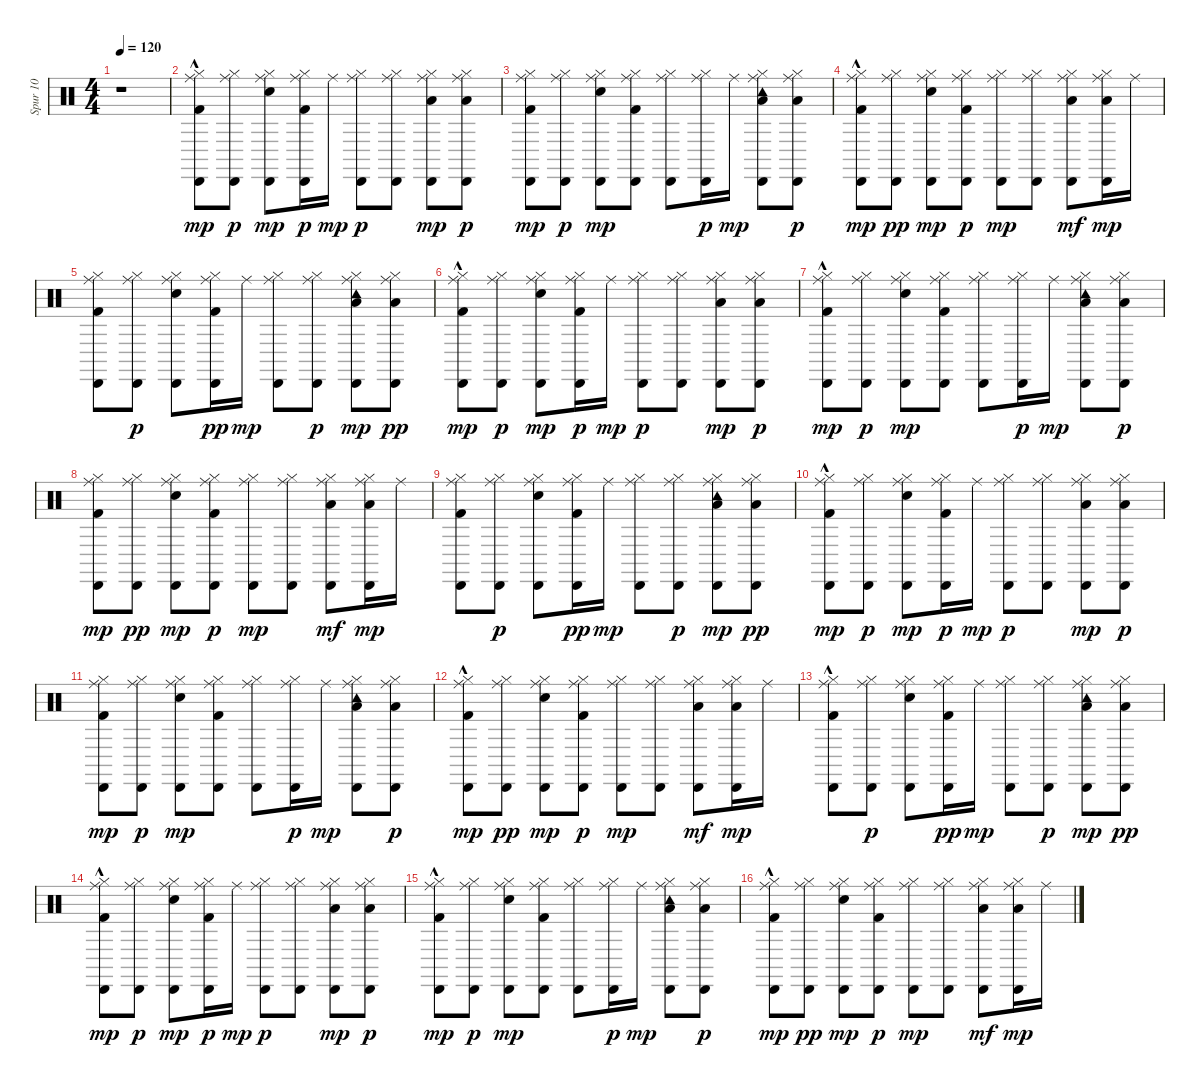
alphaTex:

\track ("Spur 10" "Spur 10") {instrument percussion}
\staff {score}
\articulation defaults
\ts (4 4)
\tempo 120
\clef neutral
\ks c
r.1{dy mp} |
("Kick (hit) 2"{hac} "Hi-Hat (closed)" "Cabasa (hit)" "Ride (middle)").8 ("Hi-Hat (closed)" "Cabasa (hit)" "Ride (middle)").8{dy p} ("Snare (hit) 2" "Hi-Hat (closed)" "Cabasa (hit)" "Ride (middle)").8{dy mp} ("Kick (hit) 2" "Hi-Hat (closed)" "Cabasa (hit)" "Ride (middle)").16{dy p} "Ride (middle)".16{dy mp} ("Hi-Hat (closed)" "Cabasa (hit)" "Ride (middle)").8{dy p} ("Hi-Hat (closed)" "Cabasa (hit)" "Ride (middle)").8 ("Low Floor Tom (hit)" "Hi-Hat (closed)" "Cabasa (hit)" "Ride (middle)").8{dy mp} ("Low Floor Tom (hit)" "Hi-Hat (closed)" "Cabasa (hit)" "Ride (middle)").8{dy p} |
("Kick (hit) 2" "Hi-Hat (closed)" "Cabasa (hit)" "Ride (middle)").8{dy mp} ("Hi-Hat (closed)" "Cabasa (hit)" "Ride (middle)").8{dy p} ("Snare (hit) 2" "Hi-Hat (closed)" "Cabasa (hit)" "Ride (middle)").8{dy mp} ("Kick (hit) 2" "Hi-Hat (closed)" "Cabasa (hit)" "Ride (middle)").8 ("Hi-Hat (closed)" "Cabasa (hit)" "Ride (middle)").8 ("Hi-Hat (closed)" "Cabasa (hit)" "Ride (middle)").16{dy p} "Ride (middle)".16{dy mp} ("Low Tom (hit)" "Hi-Hat (closed)" "Cabasa (hit)" "Tambourine (hit)" "Ride (middle)").8 ("Low Tom (hit)" "Hi-Hat (closed)" "Cabasa (hit)" "Ride (middle)").8{dy p} |
("Kick (hit) 2"{hac} "Hi-Hat (closed)" "Cabasa (hit)" "Ride (middle)").8{dy mp} ("Hi-Hat (closed)" "Cabasa (hit)" "Ride (middle)").8{dy pp} ("Snare (hit) 2" "Hi-Hat (closed)" "Cabasa (hit)" "Ride (middle)").8{dy mp} ("Kick (hit) 2" "Hi-Hat (closed)" "Cabasa (hit)" "Ride (middle)").8{dy p} ("Hi-Hat (closed)" "Cabasa (hit)" "Ride (middle)").8{dy mp} ("Hi-Hat (closed)" "Cabasa (hit)" "Ride (middle)").8 ("Low Floor Tom (hit)" "Hi-Hat (closed)" "Cabasa (hit)" "Ride (middle)").8{dy mf} ("Low Floor Tom (hit)" "Hi-Hat (closed)" "Cabasa (hit)" "Ride (middle)").16{dy mp} "Ride (middle)".16 |
("Kick (hit) 2" "Hi-Hat (closed)" "Cabasa (hit)" "Ride (middle)").8 ("Hi-Hat (closed)" "Cabasa (hit)" "Ride (middle)").8{dy p} ("Snare (hit) 2" "Hi-Hat (closed)" "Cabasa (hit)" "Ride (middle)").8 ("Kick (hit) 2" "Hi-Hat (closed)" "Cabasa (hit)" "Ride (middle)").16{dy pp} "Ride (middle)".16{dy mp} ("Hi-Hat (closed)" "Cabasa (hit)" "Ride (middle)").8 ("Hi-Hat (closed)" "Cabasa (hit)" "Ride (middle)").8{dy p} ("Low Tom (hit)" "Hi-Hat (closed)" "Cabasa (hit)" "Tambourine (hit)" "Ride (middle)").8{dy mp} ("Low Tom (hit)" "Hi-Hat (closed)" "Cabasa (hit)" "Ride (middle)").8{dy pp} |
("Kick (hit) 2"{hac} "Hi-Hat (closed)" "Cabasa (hit)" "Ride (middle)").8{dy mp} ("Hi-Hat (closed)" "Cabasa (hit)" "Ride (middle)").8{dy p} ("Snare (hit) 2" "Hi-Hat (closed)" "Cabasa (hit)" "Ride (middle)").8{dy mp} ("Kick (hit) 2" "Hi-Hat (closed)" "Cabasa (hit)" "Ride (middle)").16{dy p} "Ride (middle)".16{dy mp} ("Hi-Hat (closed)" "Cabasa (hit)" "Ride (middle)").8{dy p} ("Hi-Hat (closed)" "Cabasa (hit)" "Ride (middle)").8 ("Low Floor Tom (hit)" "Hi-Hat (closed)" "Cabasa (hit)" "Ride (middle)").8{dy mp} ("Low Floor Tom (hit)" "Hi-Hat (closed)" "Cabasa (hit)" "Ride (middle)").8{dy p} |
("Kick (hit) 2"{hac} "Hi-Hat (closed)" "Cabasa (hit)" "Ride (middle)").8{dy mp} ("Hi-Hat (closed)" "Cabasa (hit)" "Ride (middle)").8{dy p} ("Snare (hit) 2" "Hi-Hat (closed)" "Cabasa (hit)" "Ride (middle)").8{dy mp} ("Kick (hit) 2" "Hi-Hat (closed)" "Cabasa (hit)" "Ride (middle)").8 ("Hi-Hat (closed)" "Cabasa (hit)" "Ride (middle)").8 ("Hi-Hat (closed)" "Cabasa (hit)" "Ride (middle)").16{dy p} "Ride (middle)".16{dy mp} ("Low Tom (hit)" "Hi-Hat (closed)" "Cabasa (hit)" "Tambourine (hit)" "Ride (middle)").8 ("Low Tom (hit)" "Hi-Hat (closed)" "Cabasa (hit)" "Ride (middle)").8{dy p} |
("Kick (hit) 2" "Hi-Hat (closed)" "Cabasa (hit)" "Ride (middle)").8{dy mp} ("Hi-Hat (closed)" "Cabasa (hit)" "Ride (middle)").8{dy pp} ("Snare (hit) 2" "Hi-Hat (closed)" "Cabasa (hit)" "Ride (middle)").8{dy mp} ("Kick (hit) 2" "Hi-Hat (closed)" "Cabasa (hit)" "Ride (middle)").8{dy p} ("Hi-Hat (closed)" "Cabasa (hit)" "Ride (middle)").8{dy mp} ("Hi-Hat (closed)" "Cabasa (hit)" "Ride (middle)").8 ("Low Floor Tom (hit)" "Hi-Hat (closed)" "Cabasa (hit)" "Ride (middle)").8{dy mf} ("Low Floor Tom (hit)" "Hi-Hat (closed)" "Cabasa (hit)" "Ride (middle)").16{dy mp} "Ride (middle)".16 |
("Kick (hit) 2" "Hi-Hat (closed)" "Cabasa (hit)" "Ride (middle)").8 ("Hi-Hat (closed)" "Cabasa (hit)" "Ride (middle)").8{dy p} ("Snare (hit) 2" "Hi-Hat (closed)" "Cabasa (hit)" "Ride (middle)").8 ("Kick (hit) 2" "Hi-Hat (closed)" "Cabasa (hit)" "Ride (middle)").16{dy pp} "Ride (middle)".16{dy mp} ("Hi-Hat (closed)" "Cabasa (hit)" "Ride (middle)").8 ("Hi-Hat (closed)" "Cabasa (hit)" "Ride (middle)").8{dy p} ("Low Tom (hit)" "Hi-Hat (closed)" "Cabasa (hit)" "Tambourine (hit)" "Ride (middle)").8{dy mp} ("Low Tom (hit)" "Hi-Hat (closed)" "Cabasa (hit)" "Ride (middle)").8{dy pp} |
("Kick (hit) 2"{hac} "Hi-Hat (closed)" "Cabasa (hit)" "Ride (middle)").8{dy mp} ("Hi-Hat (closed)" "Cabasa (hit)" "Ride (middle)").8{dy p} ("Snare (hit) 2" "Hi-Hat (closed)" "Cabasa (hit)" "Ride (middle)").8{dy mp} ("Kick (hit) 2" "Hi-Hat (closed)" "Cabasa (hit)" "Ride (middle)").16{dy p} "Ride (middle)".16{dy mp} ("Hi-Hat (closed)" "Cabasa (hit)" "Ride (middle)").8{dy p} ("Hi-Hat (closed)" "Cabasa (hit)" "Ride (middle)").8 ("Low Floor Tom (hit)" "Hi-Hat (closed)" "Cabasa (hit)" "Ride (middle)").8{dy mp} ("Low Floor Tom (hit)" "Hi-Hat (closed)" "Cabasa (hit)" "Ride (middle)").8{dy p} |
("Kick (hit) 2" "Hi-Hat (closed)" "Cabasa (hit)" "Ride (middle)").8{dy mp} ("Hi-Hat (closed)" "Cabasa (hit)" "Ride (middle)").8{dy p} ("Snare (hit) 2" "Hi-Hat (closed)" "Cabasa (hit)" "Ride (middle)").8{dy mp} ("Kick (hit) 2" "Hi-Hat (closed)" "Cabasa (hit)" "Ride (middle)").8 ("Hi-Hat (closed)" "Cabasa (hit)" "Ride (middle)").8 ("Hi-Hat (closed)" "Cabasa (hit)" "Ride (middle)").16{dy p} "Ride (middle)".16{dy mp} ("Low Tom (hit)" "Hi-Hat (closed)" "Cabasa (hit)" "Tambourine (hit)" "Ride (middle)").8 ("Low Tom (hit)" "Hi-Hat (closed)" "Cabasa (hit)" "Ride (middle)").8{dy p} |
("Kick (hit) 2"{hac} "Hi-Hat (closed)" "Cabasa (hit)" "Ride (middle)").8{dy mp} ("Hi-Hat (closed)" "Cabasa (hit)" "Ride (middle)").8{dy pp} ("Snare (hit) 2" "Hi-Hat (closed)" "Cabasa (hit)" "Ride (middle)").8{dy mp} ("Kick (hit) 2" "Hi-Hat (closed)" "Cabasa (hit)" "Ride (middle)").8{dy p} ("Hi-Hat (closed)" "Cabasa (hit)" "Ride (middle)").8{dy mp} ("Hi-Hat (closed)" "Cabasa (hit)" "Ride (middle)").8 ("Low Floor Tom (hit)" "Hi-Hat (closed)" "Cabasa (hit)" "Ride (middle)").8{dy mf} ("Low Floor Tom (hit)" "Hi-Hat (closed)" "Cabasa (hit)" "Ride (middle)").16{dy mp} "Ride (middle)".16 |
("Kick (hit) 2"{hac} "Hi-Hat (closed)" "Cabasa (hit)" "Ride (middle)").8 ("Hi-Hat (closed)" "Cabasa (hit)" "Ride (middle)").8{dy p} ("Snare (hit) 2" "Hi-Hat (closed)" "Cabasa (hit)" "Ride (middle)").8 ("Kick (hit) 2" "Hi-Hat (closed)" "Cabasa (hit)" "Ride (middle)").16{dy pp} "Ride (middle)".16{dy mp} ("Hi-Hat (closed)" "Cabasa (hit)" "Ride (middle)").8 ("Hi-Hat (closed)" "Cabasa (hit)" "Ride (middle)").8{dy p} ("Low Tom (hit)" "Hi-Hat (closed)" "Cabasa (hit)" "Tambourine (hit)" "Ride (middle)").8{dy mp} ("Low Tom (hit)" "Hi-Hat (closed)" "Cabasa (hit)" "Ride (middle)").8{dy pp} |
("Kick (hit) 2"{hac} "Hi-Hat (closed)" "Cabasa (hit)" "Ride (middle)").8{dy mp} ("Hi-Hat (closed)" "Cabasa (hit)" "Ride (middle)").8{dy p} ("Snare (hit) 2" "Hi-Hat (closed)" "Cabasa (hit)" "Ride (middle)").8{dy mp} ("Kick (hit) 2" "Hi-Hat (closed)" "Cabasa (hit)" "Ride (middle)").16{dy p} "Ride (middle)".16{dy mp} ("Hi-Hat (closed)" "Cabasa (hit)" "Ride (middle)").8{dy p} ("Hi-Hat (closed)" "Cabasa (hit)" "Ride (middle)").8 ("Low Floor Tom (hit)" "Hi-Hat (closed)" "Cabasa (hit)" "Ride (middle)").8{dy mp} ("Low Floor Tom (hit)" "Hi-Hat (closed)" "Cabasa (hit)" "Ride (middle)").8{dy p} |
("Kick (hit) 2"{hac} "Hi-Hat (closed)" "Cabasa (hit)" "Ride (middle)").8{dy mp} ("Hi-Hat (closed)" "Cabasa (hit)" "Ride (middle)").8{dy p} ("Snare (hit) 2" "Hi-Hat (closed)" "Cabasa (hit)" "Ride (middle)").8{dy mp} ("Kick (hit) 2" "Hi-Hat (closed)" "Cabasa (hit)" "Ride (middle)").8 ("Hi-Hat (closed)" "Cabasa (hit)" "Ride (middle)").8 ("Hi-Hat (closed)" "Cabasa (hit)" "Ride (middle)").16{dy p} "Ride (middle)".16{dy mp} ("Low Tom (hit)" "Hi-Hat (closed)" "Cabasa (hit)" "Tambourine (hit)" "Ride (middle)").8 ("Low Tom (hit)" "Hi-Hat (closed)" "Cabasa (hit)" "Ride (middle)").8{dy p} |
("Kick (hit) 2"{hac} "Hi-Hat (closed)" "Cabasa (hit)" "Ride (middle)").8{dy mp} ("Hi-Hat (closed)" "Cabasa (hit)" "Ride (middle)").8{dy pp} ("Snare (hit) 2" "Hi-Hat (closed)" "Cabasa (hit)" "Ride (middle)").8{dy mp} ("Kick (hit) 2" "Hi-Hat (closed)" "Cabasa (hit)" "Ride (middle)").8{dy p} ("Hi-Hat (closed)" "Cabasa (hit)" "Ride (middle)").8{dy mp} ("Hi-Hat (closed)" "Cabasa (hit)" "Ride (middle)").8 ("Low Floor Tom (hit)" "Hi-Hat (closed)" "Cabasa (hit)" "Ride (middle)").8{dy mf} ("Low Floor Tom (hit)" "Hi-Hat (closed)" "Cabasa (hit)" "Ride (middle)").16{dy mp} "Ride (middle)".16
